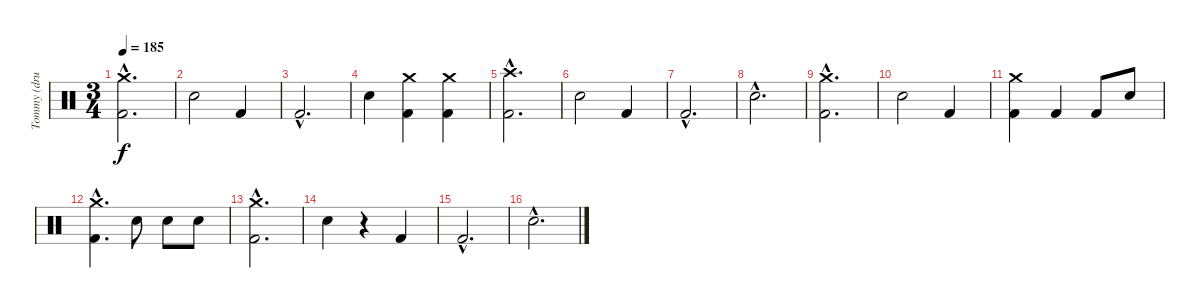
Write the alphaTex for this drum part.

\track ("Tommy (drums)" "Tommy (dru") {instrument percussion}
\staff {score}
\articulation defaults
\ts (3 4)
\tempo 185
\clef neutral
\ks c
("Crash medium (hit)"{hac} "Kick (hit) 2"{hac}).2{d dy f} |
"Electric Snare (hit)".2 "Kick (hit) 2".4 |
"Kick (hit) 2"{hac}.2{d} |
"Electric Snare (hit)".4 ("Crash medium (hit)" "Kick (hit) 2").4 ("Crash medium (hit)" "Kick (hit) 2").4 |
("Crash high (hit)"{hac} "Kick (hit) 2"{hac}).2{d} |
"Electric Snare (hit)".2 "Kick (hit) 2".4 |
"Kick (hit) 2"{hac}.2{d} |
"Electric Snare (hit)"{hac}.2{d} |
("Crash medium (hit)"{hac} "Kick (hit) 2"{hac}).2{d} |
"Electric Snare (hit)".2 "Kick (hit) 2".4 |
("Crash medium (hit)" "Kick (hit) 2").4 "Kick (hit) 2".4 "Kick (hit) 2".8 "Electric Snare (hit)".8 |
("Crash medium (hit)"{hac} "Kick (hit) 2"{hac}).4{d} "Electric Snare (hit)".8 "Electric Snare (hit)".8 "Electric Snare (hit)".8 |
("Crash medium (hit)"{hac} "Kick (hit) 2"{hac}).2{d} |
"Electric Snare (hit)".4 r.4 "Kick (hit) 2".4 |
"Kick (hit) 2"{hac}.2{d} |
"Electric Snare (hit)"{hac}.2{d}
